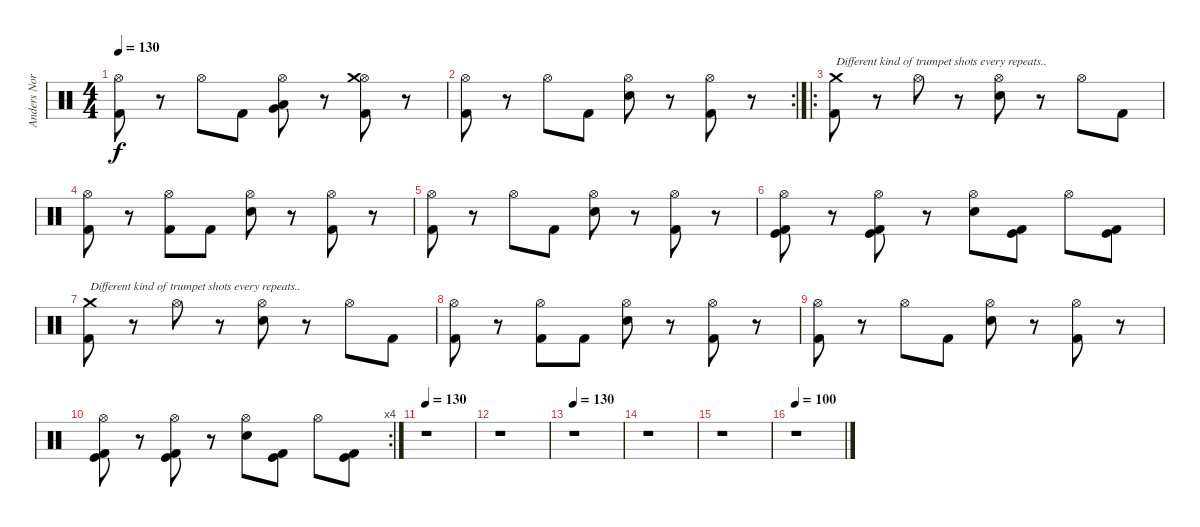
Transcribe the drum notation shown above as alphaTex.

\track ("Anders Nordin" "Anders Nor") {instrument percussion}
\staff {score}
\articulation defaults
\ts (4 4)
\tempo 130
\clef neutral
\ks c
("Hi-Hat (open)" "Kick (hit) 2").8{dy f} r.8 "Hi-Hat (open)".8 "Kick (hit) 2".8 ("Hi-Hat (open)" "Very Low Tom (hit)" "Low Tom (hit)").8 r.8 ("Hi-Hat (open)" "Crash medium (hit)" "Kick (hit) 2").8 r.8 |
\rc 2
("Hi-Hat (open)" "Kick (hit) 2").8 r.8 "Hi-Hat (open)".8 "Kick (hit) 2".8 ("Hi-Hat (open)" "Snare (hit) 2").8 r.8 ("Hi-Hat (open)" "Kick (hit) 2").8 r.8 |
\ro
("Crash medium (hit)" "Kick (hit) 2").8{txt "Different kind of trumpet shots every repeats.."} r.8 "Hi-Hat (open)".8 r.8 ("Hi-Hat (open)" "Snare (hit) 2").8 r.8 "Hi-Hat (open)".8 "Kick (hit) 2".8 |
("Hi-Hat (open)" "Kick (hit) 2").8 r.8 ("Hi-Hat (open)" "Kick (hit) 2").8 "Kick (hit) 2".8 ("Hi-Hat (open)" "Snare (hit) 2").8 r.8 ("Hi-Hat (open)" "Kick (hit) 2").8 r.8 |
("Hi-Hat (open)" "Kick (hit) 2").8 r.8 "Hi-Hat (open)".8 "Kick (hit) 2".8 ("Hi-Hat (open)" "Snare (hit) 2").8 r.8 ("Hi-Hat (open)" "Kick (hit) 2").8 r.8 |
("Hi-Hat (open)" "Kick (hit)" "Kick (hit) 2").8 r.8 ("Hi-Hat (open)" "Kick (hit)" "Kick (hit) 2").8 r.8 ("Hi-Hat (open)" "Snare (hit) 2").8 ("Kick (hit)" "Kick (hit) 2").8 "Hi-Hat (open)".8 ("Kick (hit)" "Kick (hit) 2").8 |
("Crash medium (hit)" "Kick (hit) 2").8{txt "Different kind of trumpet shots every repeats.."} r.8 "Hi-Hat (open)".8 r.8 ("Hi-Hat (open)" "Snare (hit) 2").8 r.8 "Hi-Hat (open)".8 "Kick (hit) 2".8 |
("Hi-Hat (open)" "Kick (hit) 2").8 r.8 ("Hi-Hat (open)" "Kick (hit) 2").8 "Kick (hit) 2".8 ("Hi-Hat (open)" "Snare (hit) 2").8 r.8 ("Hi-Hat (open)" "Kick (hit) 2").8 r.8 |
("Hi-Hat (open)" "Kick (hit) 2").8 r.8 "Hi-Hat (open)".8 "Kick (hit) 2".8 ("Hi-Hat (open)" "Snare (hit) 2").8 r.8 ("Hi-Hat (open)" "Kick (hit) 2").8 r.8 |
\rc 4
("Hi-Hat (open)" "Kick (hit)" "Kick (hit) 2").8 r.8 ("Hi-Hat (open)" "Kick (hit) 2" "Kick (hit)").8 r.8 ("Hi-Hat (open)" "Snare (hit) 2").8 ("Kick (hit) 2" "Kick (hit)").8 "Hi-Hat (open)".8 ("Kick (hit) 2" "Kick (hit)").8 |
\tempo 130
r.1 |
r.1 |
\tempo 130
r.1 |
r.1 |
r.1 |
\tempo 100
r.1
